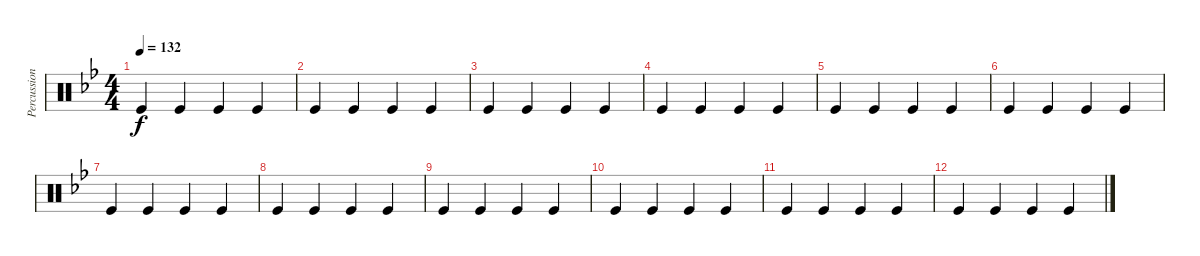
\track ("Percussion" "Percussion") {instrument percussion}
\staff {score}
\articulation defaults
\ts (4 4)
\tempo 132
\clef neutral
\ks bb "Kick (hit)".4{dy f} "Kick (hit)".4 "Kick (hit)".4 "Kick (hit)".4
|
"Kick (hit)".4 "Kick (hit)".4 "Kick (hit)".4 "Kick (hit)".4 |
"Kick (hit)".4 "Kick (hit)".4 "Kick (hit)".4 "Kick (hit)".4 |
"Kick (hit)".4 "Kick (hit)".4 "Kick (hit)".4 "Kick (hit)".4 |
"Kick (hit)".4 "Kick (hit)".4 "Kick (hit)".4 "Kick (hit)".4 |
"Kick (hit)".4 "Kick (hit)".4 "Kick (hit)".4 "Kick (hit)".4 |
"Kick (hit)".4 "Kick (hit)".4 "Kick (hit)".4 "Kick (hit)".4 |
"Kick (hit)".4 "Kick (hit)".4 "Kick (hit)".4 "Kick (hit)".4 |
"Kick (hit)".4 "Kick (hit)".4 "Kick (hit)".4 "Kick (hit)".4 |
"Kick (hit)".4 "Kick (hit)".4 "Kick (hit)".4 "Kick (hit)".4 |
"Kick (hit)".4 "Kick (hit)".4 "Kick (hit)".4 "Kick (hit)".4 |
"Kick (hit)".4 "Kick (hit)".4 "Kick (hit)".4 "Kick (hit)".4
